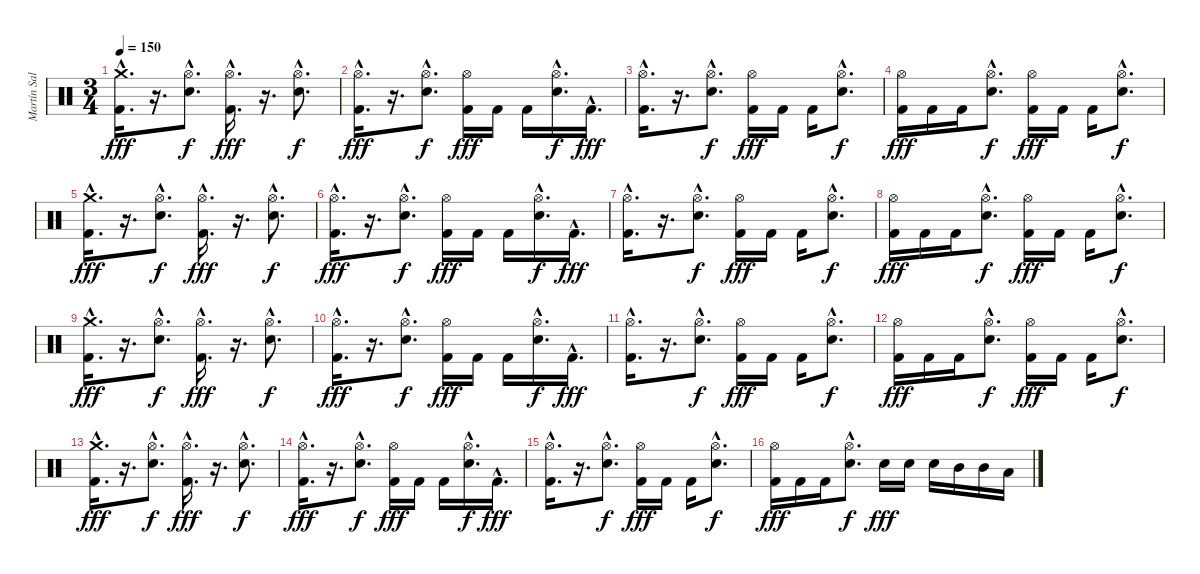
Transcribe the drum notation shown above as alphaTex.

\track ("Martín Salariato" "Martín Sal") {instrument percussion}
\staff {score}
\articulation defaults
\ts (3 4)
\tempo 150
\clef neutral
\ks c
("Crash medium (hit)"{hac} "Kick (hit) 2"{hac}).16{d dy fff} r.16{d} ("Hi-Hat (open)"{hac} "Snare (hit) 2"{hac}).8{d dy f} ("Hi-Hat (open)"{hac} "Kick (hit) 2"{hac}).16{d dy fff} r.16{d} ("Hi-Hat (open)"{hac} "Snare (hit) 2"{hac}).8{d dy f} |
("Hi-Hat (open)"{hac} "Kick (hit) 2"{hac}).16{d dy fff} r.16{d} ("Hi-Hat (open)"{hac} "Snare (hit) 2"{hac}).8{d dy f} ("Hi-Hat (open)" "Kick (hit) 2").16{dy fff} "Kick (hit) 2".16 "Kick (hit) 2".16 ("Hi-Hat (open)"{hac} "Snare (hit) 2"{hac}).16{d dy f} "Kick (hit) 2"{hac}.16{d dy fff} |
("Hi-Hat (open)"{hac} "Kick (hit) 2"{hac}).16{d} r.16{d} ("Hi-Hat (open)"{hac} "Snare (hit) 2"{hac}).8{d dy f} ("Hi-Hat (open)" "Kick (hit) 2").16{dy fff} "Kick (hit) 2".16 "Kick (hit) 2".16 ("Hi-Hat (open)"{hac} "Snare (hit) 2"{hac}).8{d dy f} |
("Hi-Hat (open)" "Kick (hit) 2").16{dy fff} "Kick (hit) 2".16 "Kick (hit) 2".16 ("Hi-Hat (open)"{hac} "Snare (hit) 2"{hac}).8{d dy f} ("Hi-Hat (open)" "Kick (hit) 2").16{dy fff} "Kick (hit) 2".16 "Kick (hit) 2".16 ("Hi-Hat (open)"{hac} "Snare (hit) 2"{hac}).8{d dy f} |
("Crash medium (hit)"{hac} "Kick (hit) 2"{hac}).16{d dy fff} r.16{d} ("Hi-Hat (open)"{hac} "Snare (hit) 2"{hac}).8{d dy f} ("Hi-Hat (open)"{hac} "Kick (hit) 2"{hac}).16{d dy fff} r.16{d} ("Hi-Hat (open)"{hac} "Snare (hit) 2"{hac}).8{d dy f} |
("Hi-Hat (open)"{hac} "Kick (hit) 2"{hac}).16{d dy fff} r.16{d} ("Hi-Hat (open)"{hac} "Snare (hit) 2"{hac}).8{d dy f} ("Hi-Hat (open)" "Kick (hit) 2").16{dy fff} "Kick (hit) 2".16 "Kick (hit) 2".16 ("Hi-Hat (open)"{hac} "Snare (hit) 2"{hac}).16{d dy f} "Kick (hit) 2"{hac}.16{d dy fff} |
("Hi-Hat (open)"{hac} "Kick (hit) 2"{hac}).16{d} r.16{d} ("Hi-Hat (open)"{hac} "Snare (hit) 2"{hac}).8{d dy f} ("Hi-Hat (open)" "Kick (hit) 2").16{dy fff} "Kick (hit) 2".16 "Kick (hit) 2".16 ("Hi-Hat (open)"{hac} "Snare (hit) 2"{hac}).8{d dy f} |
("Hi-Hat (open)" "Kick (hit) 2").16{dy fff} "Kick (hit) 2".16 "Kick (hit) 2".16 ("Hi-Hat (open)"{hac} "Snare (hit) 2"{hac}).8{d dy f} ("Hi-Hat (open)" "Kick (hit) 2").16{dy fff} "Kick (hit) 2".16 "Kick (hit) 2".16 ("Hi-Hat (open)"{hac} "Snare (hit) 2"{hac}).8{d dy f} |
("Crash medium (hit)"{hac} "Kick (hit) 2"{hac}).16{d dy fff} r.16{d} ("Hi-Hat (open)"{hac} "Snare (hit) 2"{hac}).8{d dy f} ("Hi-Hat (open)"{hac} "Kick (hit) 2"{hac}).16{d dy fff} r.16{d} ("Hi-Hat (open)"{hac} "Snare (hit) 2"{hac}).8{d dy f} |
("Hi-Hat (open)"{hac} "Kick (hit) 2"{hac}).16{d dy fff} r.16{d} ("Hi-Hat (open)"{hac} "Snare (hit) 2"{hac}).8{d dy f} ("Hi-Hat (open)" "Kick (hit) 2").16{dy fff} "Kick (hit) 2".16 "Kick (hit) 2".16 ("Hi-Hat (open)"{hac} "Snare (hit) 2"{hac}).16{d dy f} "Kick (hit) 2"{hac}.16{d dy fff} |
("Hi-Hat (open)"{hac} "Kick (hit) 2"{hac}).16{d} r.16{d} ("Hi-Hat (open)"{hac} "Snare (hit) 2"{hac}).8{d dy f} ("Hi-Hat (open)" "Kick (hit) 2").16{dy fff} "Kick (hit) 2".16 "Kick (hit) 2".16 ("Hi-Hat (open)"{hac} "Snare (hit) 2"{hac}).8{d dy f} |
("Hi-Hat (open)" "Kick (hit) 2").16{dy fff} "Kick (hit) 2".16 "Kick (hit) 2".16 ("Hi-Hat (open)"{hac} "Snare (hit) 2"{hac}).8{d dy f} ("Hi-Hat (open)" "Kick (hit) 2").16{dy fff} "Kick (hit) 2".16 "Kick (hit) 2".16 ("Hi-Hat (open)"{hac} "Snare (hit) 2"{hac}).8{d dy f} |
("Crash medium (hit)"{hac} "Kick (hit) 2"{hac}).16{d dy fff} r.16{d} ("Hi-Hat (open)"{hac} "Snare (hit) 2"{hac}).8{d dy f} ("Hi-Hat (open)"{hac} "Kick (hit) 2"{hac}).16{d dy fff} r.16{d} ("Hi-Hat (open)"{hac} "Snare (hit) 2"{hac}).8{d dy f} |
("Hi-Hat (open)"{hac} "Kick (hit) 2"{hac}).16{d dy fff} r.16{d} ("Hi-Hat (open)"{hac} "Snare (hit) 2"{hac}).8{d dy f} ("Hi-Hat (open)" "Kick (hit) 2").16{dy fff} "Kick (hit) 2".16 "Kick (hit) 2".16 ("Hi-Hat (open)"{hac} "Snare (hit) 2"{hac}).16{d dy f} "Kick (hit) 2"{hac}.16{d dy fff} |
("Hi-Hat (open)"{hac} "Kick (hit) 2"{hac}).16{d} r.16{d} ("Hi-Hat (open)"{hac} "Snare (hit) 2"{hac}).8{d dy f} ("Hi-Hat (open)" "Kick (hit) 2").16{dy fff} "Kick (hit) 2".16 "Kick (hit) 2".16 ("Hi-Hat (open)"{hac} "Snare (hit) 2"{hac}).8{d dy f} |
("Hi-Hat (open)" "Kick (hit) 2").16{dy fff} "Kick (hit) 2".16 "Kick (hit) 2".16 ("Hi-Hat (open)"{hac} "Snare (hit) 2"{hac}).8{d dy f} "Snare (hit) 2".16{dy fff} "Snare (hit) 2".16 "Snare (hit) 2".16 "Mid Tom (hit)".16 "Mid Tom (hit)".16 "Low Tom (hit)".16
